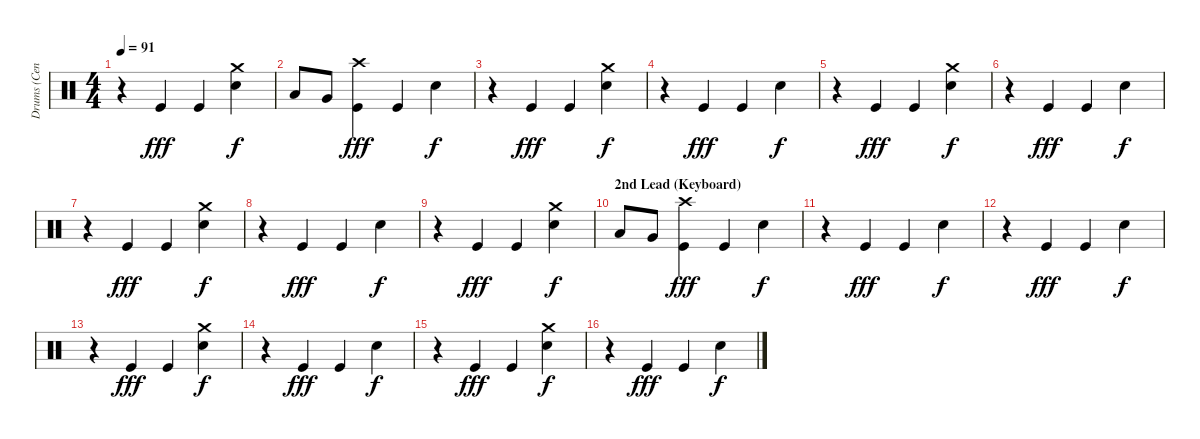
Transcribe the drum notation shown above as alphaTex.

\track ("Drums (Cenk)" "Drums (Cen") {instrument percussion}
\staff {score}
\articulation defaults
\ts (4 4)
\tempo 91
\clef neutral
\ks c
r.4{dy f} "Kick (hit)".4{dy fff} "Kick (hit)".4 ("Crash medium (hit)" "Snare (hit) 2").4{dy f} |
"Low Tom (hit)".8 "Very Low Tom (hit)".8 ("Crash high (hit)" "Kick (hit)").4{dy fff} "Kick (hit)".4 "Snare (hit) 2".4{dy f} |
r.4 "Kick (hit)".4{dy fff} "Kick (hit)".4 ("Crash medium (hit)" "Snare (hit) 2").4{dy f} |
r.4 "Kick (hit)".4{dy fff} "Kick (hit)".4 "Snare (hit) 2".4{dy f} |
r.4 "Kick (hit)".4{dy fff} "Kick (hit)".4 ("Crash medium (hit)" "Snare (hit) 2").4{dy f} |
r.4 "Kick (hit)".4{dy fff} "Kick (hit)".4 "Snare (hit) 2".4{dy f} |
r.4 "Kick (hit)".4{dy fff} "Kick (hit)".4 ("Crash medium (hit)" "Snare (hit) 2").4{dy f} |
r.4 "Kick (hit)".4{dy fff} "Kick (hit)".4 "Snare (hit) 2".4{dy f} |
r.4 "Kick (hit)".4{dy fff} "Kick (hit)".4 ("Crash medium (hit)" "Snare (hit) 2").4{dy f} |
\section ("" "2nd Lead (Keyboard)")
"Low Tom (hit)".8 "Very Low Tom (hit)".8 ("Crash high (hit)" "Kick (hit)").4{dy fff} "Kick (hit)".4 "Snare (hit) 2".4{dy f} |
r.4 "Kick (hit)".4{dy fff} "Kick (hit)".4 "Snare (hit) 2".4{dy f} |
r.4 "Kick (hit)".4{dy fff} "Kick (hit)".4 "Snare (hit) 2".4{dy f} |
r.4 "Kick (hit)".4{dy fff} "Kick (hit)".4 ("Crash medium (hit)" "Snare (hit) 2").4{dy f} |
r.4 "Kick (hit)".4{dy fff} "Kick (hit)".4 "Snare (hit) 2".4{dy f} |
r.4 "Kick (hit)".4{dy fff} "Kick (hit)".4 ("Crash medium (hit)" "Snare (hit) 2").4{dy f} |
r.4 "Kick (hit)".4{dy fff} "Kick (hit)".4 "Snare (hit) 2".4{dy f}
